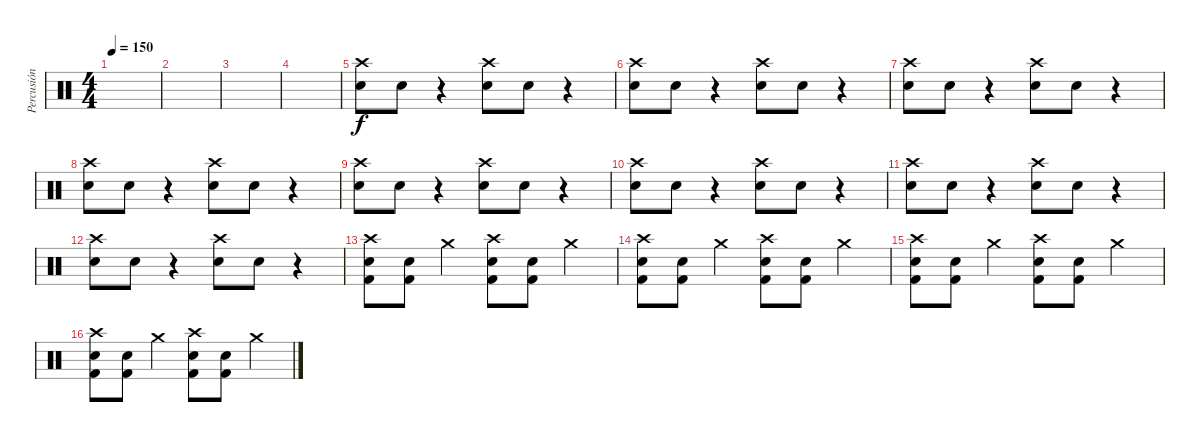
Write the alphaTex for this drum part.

\track ("Percusión" "Percusión") {instrument percussion}
\staff {score}
\articulation defaults
\ts (4 4)
\tempo 150
\clef neutral
\ks c
|
|
|
|
("Crash high (hit)" "Electric Snare (hit)").8 "Electric Snare (hit)".8 r.4 ("Crash high (hit)" "Electric Snare (hit)").8 "Electric Snare (hit)".8 r.4 |
("Crash high (hit)" "Electric Snare (hit)").8 "Electric Snare (hit)".8 r.4 ("Crash high (hit)" "Electric Snare (hit)").8 "Electric Snare (hit)".8 r.4 |
("Crash high (hit)" "Electric Snare (hit)").8 "Electric Snare (hit)".8 r.4 ("Crash high (hit)" "Electric Snare (hit)").8 "Electric Snare (hit)".8 r.4 |
("Crash high (hit)" "Electric Snare (hit)").8 "Electric Snare (hit)".8 r.4 ("Crash high (hit)" "Electric Snare (hit)").8 "Electric Snare (hit)".8 r.4 |
("Crash high (hit)" "Electric Snare (hit)").8 "Electric Snare (hit)".8 r.4 ("Crash high (hit)" "Electric Snare (hit)").8 "Electric Snare (hit)".8 r.4 |
("Crash high (hit)" "Electric Snare (hit)").8 "Electric Snare (hit)".8 r.4 ("Crash high (hit)" "Electric Snare (hit)").8 "Electric Snare (hit)".8 r.4 |
("Crash high (hit)" "Electric Snare (hit)").8 "Electric Snare (hit)".8 r.4 ("Crash high (hit)" "Electric Snare (hit)").8 "Electric Snare (hit)".8 r.4 |
("Crash high (hit)" "Electric Snare (hit)").8 "Electric Snare (hit)".8 r.4 ("Crash high (hit)" "Electric Snare (hit)").8 "Electric Snare (hit)".8 r.4 |
("Crash high (hit)" "Kick (hit) 2" "Electric Snare (hit)").8 ("Kick (hit) 2" "Electric Snare (hit)").8 "Crash medium (hit)".4 ("Crash high (hit)" "Kick (hit) 2" "Electric Snare (hit)").8 ("Kick (hit) 2" "Electric Snare (hit)").8 "Crash medium (hit)".4 |
("Crash high (hit)" "Kick (hit) 2" "Electric Snare (hit)").8 ("Kick (hit) 2" "Electric Snare (hit)").8 "Crash medium (hit)".4 ("Crash high (hit)" "Kick (hit) 2" "Electric Snare (hit)").8 ("Kick (hit) 2" "Electric Snare (hit)").8 "Crash medium (hit)".4 |
("Crash high (hit)" "Kick (hit) 2" "Electric Snare (hit)").8 ("Kick (hit) 2" "Electric Snare (hit)").8 "Crash medium (hit)".4 ("Crash high (hit)" "Kick (hit) 2" "Electric Snare (hit)").8 ("Kick (hit) 2" "Electric Snare (hit)").8 "Crash medium (hit)".4 |
("Crash high (hit)" "Kick (hit) 2" "Electric Snare (hit)").8 ("Kick (hit) 2" "Electric Snare (hit)").8 "Crash medium (hit)".4 ("Crash high (hit)" "Kick (hit) 2" "Electric Snare (hit)").8 ("Kick (hit) 2" "Electric Snare (hit)").8 "Crash medium (hit)".4
